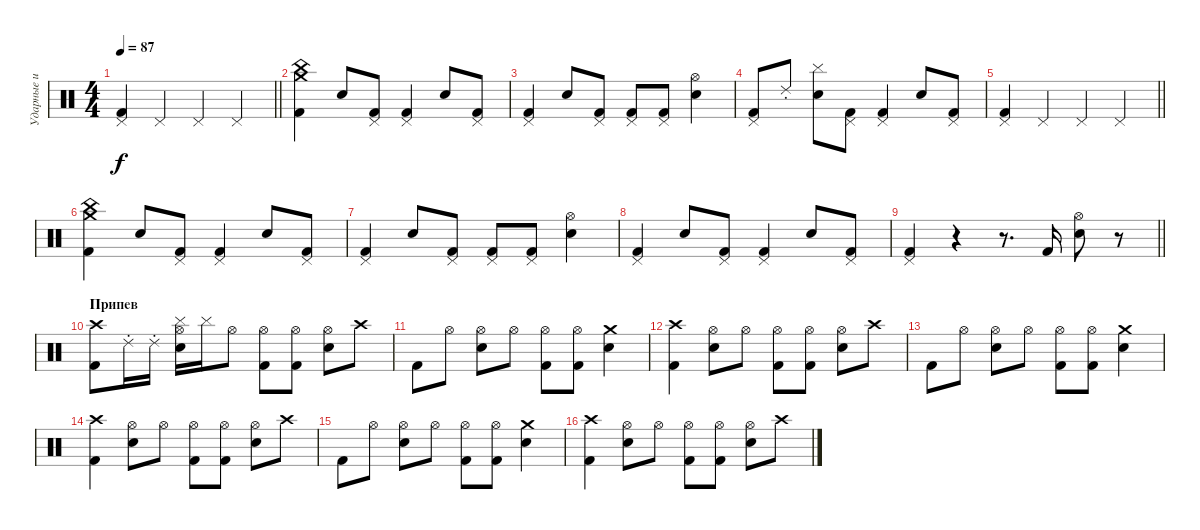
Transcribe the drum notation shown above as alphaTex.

\track ("Ударные и Скрэтч" "Ударные и ") {instrument percussion}
\staff {score}
\articulation defaults
\ts (4 4)
\tempo 87
\clef neutral
\barLineRight lightlight
\ks c
("Kick (hit) 2" "Pedal Hi-Hat (hit)").4{dy f} "Pedal Hi-Hat (hit)".4 "Pedal Hi-Hat (hit)".4 "Pedal Hi-Hat (hit)".4 |
("Kick (hit) 2" "Crash medium (hit)" "China (hit)").4 "Electric Snare (hit)".8 ("Kick (hit) 2" "Pedal Hi-Hat (hit)").8 ("Kick (hit) 2" "Pedal Hi-Hat (hit)").4 "Electric Snare (hit)".8 ("Kick (hit) 2" "Pedal Hi-Hat (hit)").8 |
("Kick (hit) 2" "Pedal Hi-Hat (hit)").4 "Electric Snare (hit)".8 ("Kick (hit) 2" "Pedal Hi-Hat (hit)").8 ("Kick (hit) 2" "Pedal Hi-Hat (hit)").8 ("Kick (hit) 2" "Pedal Hi-Hat (hit)").8 ("Electric Snare (hit)" "Hi-Hat (open)").4 |
("Kick (hit) 2" "Pedal Hi-Hat (hit)").8 "Ride (choke) 2".8 ("Electric Snare (hit)" "Cymbal (hit)").8 ("Kick (hit) 2" "Pedal Hi-Hat (hit)").8 ("Kick (hit) 2" "Pedal Hi-Hat (hit)").4 "Electric Snare (hit)".8 ("Kick (hit) 2" "Pedal Hi-Hat (hit)").8 |
\barLineRight lightlight
("Kick (hit) 2" "Pedal Hi-Hat (hit)").4 "Pedal Hi-Hat (hit)".4 "Pedal Hi-Hat (hit)".4 "Pedal Hi-Hat (hit)".4 |
("Kick (hit) 2" "Crash medium (hit)" "China (hit)").4 "Electric Snare (hit)".8 ("Kick (hit) 2" "Pedal Hi-Hat (hit)").8 ("Kick (hit) 2" "Pedal Hi-Hat (hit)").4 "Electric Snare (hit)".8 ("Kick (hit) 2" "Pedal Hi-Hat (hit)").8 |
("Kick (hit) 2" "Pedal Hi-Hat (hit)").4 "Electric Snare (hit)".8 ("Kick (hit) 2" "Pedal Hi-Hat (hit)").8 ("Kick (hit) 2" "Pedal Hi-Hat (hit)").8 ("Kick (hit) 2" "Pedal Hi-Hat (hit)").8 ("Electric Snare (hit)" "Hi-Hat (open)").4 |
("Kick (hit) 2" "Pedal Hi-Hat (hit)").4 "Electric Snare (hit)".8 ("Kick (hit) 2" "Pedal Hi-Hat (hit)").8 ("Kick (hit) 2" "Pedal Hi-Hat (hit)").4 "Electric Snare (hit)".8 ("Kick (hit) 2" "Pedal Hi-Hat (hit)").8 |
\barLineRight lightlight
("Kick (hit) 2" "Pedal Hi-Hat (hit)").4 r.4 r.8{d} "Kick (hit) 2".16 ("Electric Snare (hit)" "Hi-Hat (open)").8 r.8 |
\section ("" "Припев")
("Kick (hit) 2" "Crash high (hit)").8 "Ride (choke) 2".16 "Ride (choke) 2".16 ("Electric Snare (hit)" "Hi-Hat (open)" "Cymbal (hit)").16 "Cymbal (hit)".16 "Hi-Hat (open)".8 ("Kick (hit) 2" "Hi-Hat (open)").8 ("Kick (hit) 2" "Hi-Hat (open)").8 ("Electric Snare (hit)" "Hi-Hat (open)").8 "Crash high (hit)".8 |
"Kick (hit) 2".8 "Hi-Hat (open)".8 ("Electric Snare (hit)" "Hi-Hat (open)").8 "Hi-Hat (open)".8 ("Kick (hit) 2" "Hi-Hat (open)").8 ("Kick (hit) 2" "Hi-Hat (open)").8 ("Electric Snare (hit)" "Crash medium (hit)").4 |
("Kick (hit) 2" "Crash high (hit)").4 ("Electric Snare (hit)" "Hi-Hat (open)").8 "Hi-Hat (open)".8 ("Kick (hit) 2" "Hi-Hat (open)").8 ("Kick (hit) 2" "Hi-Hat (open)").8 ("Electric Snare (hit)" "Hi-Hat (open)").8 "Crash high (hit)".8 |
"Kick (hit) 2".8 "Hi-Hat (open)".8 ("Electric Snare (hit)" "Hi-Hat (open)").8 "Hi-Hat (open)".8 ("Kick (hit) 2" "Hi-Hat (open)").8 ("Kick (hit) 2" "Hi-Hat (open)").8 ("Electric Snare (hit)" "Crash medium (hit)").4 |
("Kick (hit) 2" "Crash high (hit)").4 ("Electric Snare (hit)" "Hi-Hat (open)").8 "Hi-Hat (open)".8 ("Kick (hit) 2" "Hi-Hat (open)").8 ("Kick (hit) 2" "Hi-Hat (open)").8 ("Electric Snare (hit)" "Hi-Hat (open)").8 "Crash high (hit)".8 |
"Kick (hit) 2".8 "Hi-Hat (open)".8 ("Electric Snare (hit)" "Hi-Hat (open)").8 "Hi-Hat (open)".8 ("Kick (hit) 2" "Hi-Hat (open)").8 ("Kick (hit) 2" "Hi-Hat (open)").8 ("Electric Snare (hit)" "Crash medium (hit)").4 |
("Kick (hit) 2" "Crash high (hit)").4 ("Electric Snare (hit)" "Hi-Hat (open)").8 "Hi-Hat (open)".8 ("Kick (hit) 2" "Hi-Hat (open)").8 ("Kick (hit) 2" "Hi-Hat (open)").8 ("Electric Snare (hit)" "Hi-Hat (open)").8 "Crash high (hit)".8
